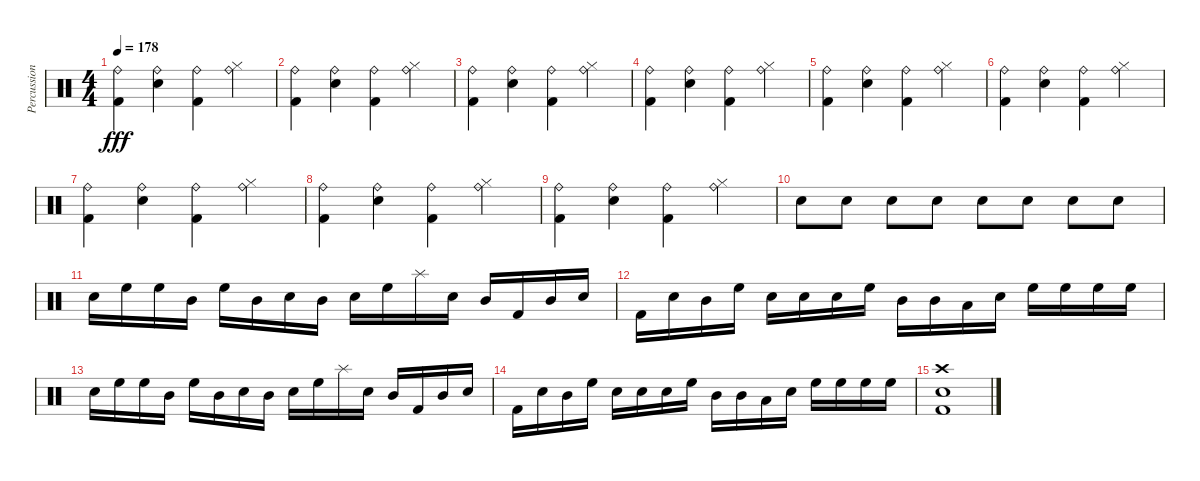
\track ("Percussion" "Percussion") {instrument percussion}
\staff {score}
\articulation defaults
\ts (4 4)
\tempo 178
\clef neutral
\ks c
("Ride (bell)" "Kick (hit) 2").4{dy fff} ("Ride (bell)" "Electric Snare (hit)").4 ("Ride (bell)" "Kick (hit) 2").4 ("Ride (bell)" "Hi-Hat (closed)").4 |
("Ride (bell)" "Kick (hit) 2").4 ("Ride (bell)" "Electric Snare (hit)").4 ("Ride (bell)" "Kick (hit) 2").4 ("Ride (bell)" "Hi-Hat (closed)").4 |
("Ride (bell)" "Kick (hit) 2").4 ("Ride (bell)" "Electric Snare (hit)").4 ("Ride (bell)" "Kick (hit) 2").4 ("Ride (bell)" "Hi-Hat (closed)").4 |
("Ride (bell)" "Kick (hit) 2").4 ("Ride (bell)" "Electric Snare (hit)").4 ("Ride (bell)" "Kick (hit) 2").4 ("Ride (bell)" "Hi-Hat (closed)").4 |
("Ride (bell)" "Kick (hit) 2").4 ("Ride (bell)" "Electric Snare (hit)").4 ("Ride (bell)" "Kick (hit) 2").4 ("Ride (bell)" "Hi-Hat (closed)").4 |
("Ride (bell)" "Kick (hit) 2").4 ("Ride (bell)" "Electric Snare (hit)").4 ("Ride (bell)" "Kick (hit) 2").4 ("Ride (bell)" "Hi-Hat (closed)").4 |
("Ride (bell)" "Kick (hit) 2").4 ("Ride (bell)" "Electric Snare (hit)").4 ("Ride (bell)" "Kick (hit) 2").4 ("Ride (bell)" "Hi-Hat (closed)").4 |
("Ride (bell)" "Kick (hit) 2").4 ("Ride (bell)" "Electric Snare (hit)").4 ("Ride (bell)" "Kick (hit) 2").4 ("Ride (bell)" "Hi-Hat (closed)").4 |
("Ride (bell)" "Kick (hit) 2").4 ("Ride (bell)" "Electric Snare (hit)").4 ("Ride (bell)" "Kick (hit) 2").4 ("Ride (bell)" "Hi-Hat (closed)").4 |
"Electric Snare (hit)".8 "Electric Snare (hit)".8 "Electric Snare (hit)".8 "Electric Snare (hit)".8 "Electric Snare (hit)".8 "Electric Snare (hit)".8 "Electric Snare (hit)".8 "Electric Snare (hit)".8 |
"Electric Snare (hit)".16 "High Floor Tom (hit)".16 "High Floor Tom (hit)".16 "Mid Tom (hit)".16 "High Floor Tom (hit)".16 "Mid Tom (hit)".16 "Electric Snare (hit)".16 "Mid Tom (hit)".16 "Electric Snare (hit)".16 "High Floor Tom (hit)".16 "Splash (hit)".16 "Electric Snare (hit)".16 "Mid Tom (hit)".16 "Kick (hit) 2".16 "Mid Tom (hit)".16 "Electric Snare (hit)".16 |
"Kick (hit) 2".16 "Electric Snare (hit)".16 "Mid Tom (hit)".16 "High Floor Tom (hit)".16 "Electric Snare (hit)".16 "Electric Snare (hit)".16 "Electric Snare (hit)".16 "High Floor Tom (hit)".16 "Mid Tom (hit)".16 "Mid Tom (hit)".16 "Low Tom (hit)".16 "Electric Snare (hit)".16 "High Floor Tom (hit)".16 "High Floor Tom (hit)".16 "High Floor Tom (hit)".16 "High Floor Tom (hit)".16 |
"Electric Snare (hit)".16 "High Floor Tom (hit)".16 "High Floor Tom (hit)".16 "Mid Tom (hit)".16 "High Floor Tom (hit)".16 "Mid Tom (hit)".16 "Electric Snare (hit)".16 "Mid Tom (hit)".16 "Electric Snare (hit)".16 "High Floor Tom (hit)".16 "Splash (hit)".16 "Electric Snare (hit)".16 "Mid Tom (hit)".16 "Kick (hit) 2".16 "Mid Tom (hit)".16 "Electric Snare (hit)".16 |
"Kick (hit) 2".16 "Electric Snare (hit)".16 "Mid Tom (hit)".16 "High Floor Tom (hit)".16 "Electric Snare (hit)".16 "Electric Snare (hit)".16 "Electric Snare (hit)".16 "High Floor Tom (hit)".16 "Mid Tom (hit)".16 "Mid Tom (hit)".16 "Low Tom (hit)".16 "Electric Snare (hit)".16 "High Floor Tom (hit)".16 "High Floor Tom (hit)".16 "High Floor Tom (hit)".16 "High Floor Tom (hit)".16 |
("Crash high (hit)" "Kick (hit) 2" "Electric Snare (hit)").1
